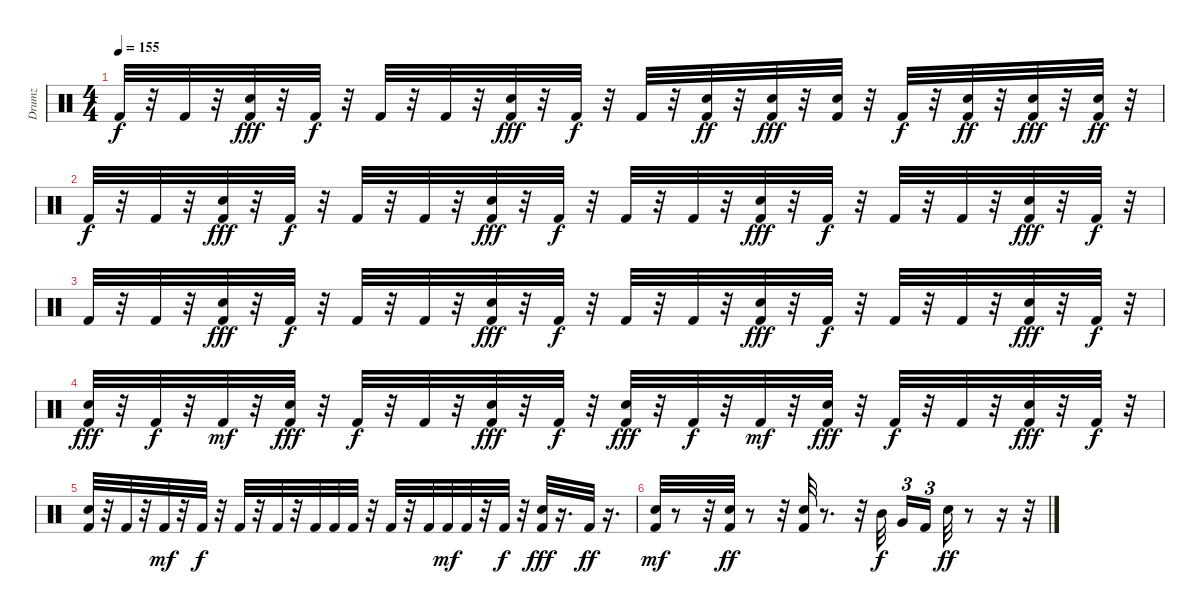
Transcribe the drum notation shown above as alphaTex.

\track ("Drumz" "Drumz") {instrument percussion}
\staff {score}
\articulation defaults
\ts (4 4)
\tempo 155
\clef neutral
\ks c "Kick (hit) 2".32{dy f}
r.32 "Kick (hit) 2".32 r.32 ("Kick (hit) 2" "Snare (hit) 2").32{dy fff} r.32 "Kick (hit) 2".32{dy f} r.32 "Kick (hit) 2".32 r.32 "Kick (hit) 2".32 r.32 ("Kick (hit) 2" "Snare (hit) 2").32{dy fff} r.32 "Kick (hit) 2".32{dy f} r.32 "Kick (hit) 2".32 r.32 ("Snare (hit) 2" "Kick (hit) 2").32{dy ff} r.32 ("Kick (hit) 2" "Snare (hit) 2").32{dy fff} r.32 ("Kick (hit) 2" "Snare (hit) 2").32 r.32 "Kick (hit) 2".32{dy f} r.32 ("Snare (hit) 2" "Kick (hit) 2").32{dy ff} r.32 ("Kick (hit) 2" "Snare (hit) 2").32{dy fff} r.32 ("Kick (hit) 2" "Snare (hit) 2").32{dy ff} r.32 |
"Kick (hit) 2".32{dy f} r.32 "Kick (hit) 2".32 r.32 ("Kick (hit) 2" "Snare (hit) 2").32{dy fff} r.32 "Kick (hit) 2".32{dy f} r.32 "Kick (hit) 2".32 r.32 "Kick (hit) 2".32 r.32 ("Kick (hit) 2" "Snare (hit) 2").32{dy fff} r.32 "Kick (hit) 2".32{dy f} r.32 "Kick (hit) 2".32 r.32 "Kick (hit) 2".32 r.32 ("Kick (hit) 2" "Snare (hit) 2").32{dy fff} r.32 "Kick (hit) 2".32{dy f} r.32 "Kick (hit) 2".32 r.32 "Kick (hit) 2".32 r.32 ("Kick (hit) 2" "Snare (hit) 2").32{dy fff} r.32 "Kick (hit) 2".32{dy f} r.32 |
"Kick (hit) 2".32 r.32 "Kick (hit) 2".32 r.32 ("Kick (hit) 2" "Snare (hit) 2").32{dy fff} r.32 "Kick (hit) 2".32{dy f} r.32 "Kick (hit) 2".32 r.32 "Kick (hit) 2".32 r.32 ("Kick (hit) 2" "Snare (hit) 2").32{dy fff} r.32 "Kick (hit) 2".32{dy f} r.32 "Kick (hit) 2".32 r.32 "Kick (hit) 2".32 r.32 ("Kick (hit) 2" "Snare (hit) 2").32{dy fff} r.32 "Kick (hit) 2".32{dy f} r.32 "Kick (hit) 2".32 r.32 "Kick (hit) 2".32 r.32 ("Kick (hit) 2" "Snare (hit) 2").32{dy fff} r.32 "Kick (hit) 2".32{dy f} r.32 |
("Kick (hit) 2" "Snare (hit) 2").32{dy fff} r.32 "Kick (hit) 2".32{dy f} r.32 "Kick (hit) 2".32{dy mf} r.32 ("Kick (hit) 2" "Snare (hit) 2").32{dy fff} r.32 "Kick (hit) 2".32{dy f} r.32 "Kick (hit) 2".32 r.32 ("Kick (hit) 2" "Snare (hit) 2").32{dy fff} r.32 "Kick (hit) 2".32{dy f} r.32 ("Kick (hit) 2" "Snare (hit) 2").32{dy fff} r.32 "Kick (hit) 2".32{dy f} r.32 "Kick (hit) 2".32{dy mf} r.32 ("Kick (hit) 2" "Snare (hit) 2").32{dy fff} r.32 "Kick (hit) 2".32{dy f} r.32 "Kick (hit) 2".32 r.32 ("Kick (hit) 2" "Snare (hit) 2").32{dy fff} r.32 "Kick (hit) 2".32{dy f} r.32 |
("Kick (hit) 2" "Snare (hit) 2").32 r.32 "Kick (hit) 2".32 r.32 "Kick (hit) 2".32{dy mf} r.32 "Kick (hit) 2".32{dy f} r.32 "Kick (hit) 2".32 r.32 "Kick (hit) 2".32 r.32 "Kick (hit) 2".32 "Kick (hit) 2".32 "Kick (hit) 2".32 r.32 "Kick (hit) 2".32 r.32 "Kick (hit) 2".32 "Kick (hit) 2".32{dy mf} "Kick (hit) 2".32 r.32 "Kick (hit) 2".32{dy f} r.32 ("Kick (hit) 2" "Snare (hit) 2").32{dy fff} r.16{d} "Kick (hit) 2".32{dy ff} r.16{d} |
("Kick (hit) 2" "Snare (hit) 2").32{dy mf} r.8 r.32 ("Snare (hit) 2" "Kick (hit) 2").32{dy ff} r.8 r.32 ("Snare (hit) 2" "Kick (hit) 2").32 r.8{d} r.32 "Mid Tom (hit)".32{dy f} "Very Low Tom (hit)".16{tu (3 2)} "Kick (hit) 2".16{tu (3 2)} "Snare (hit) 2".32{dy ff} r.8 r.16 r.32
